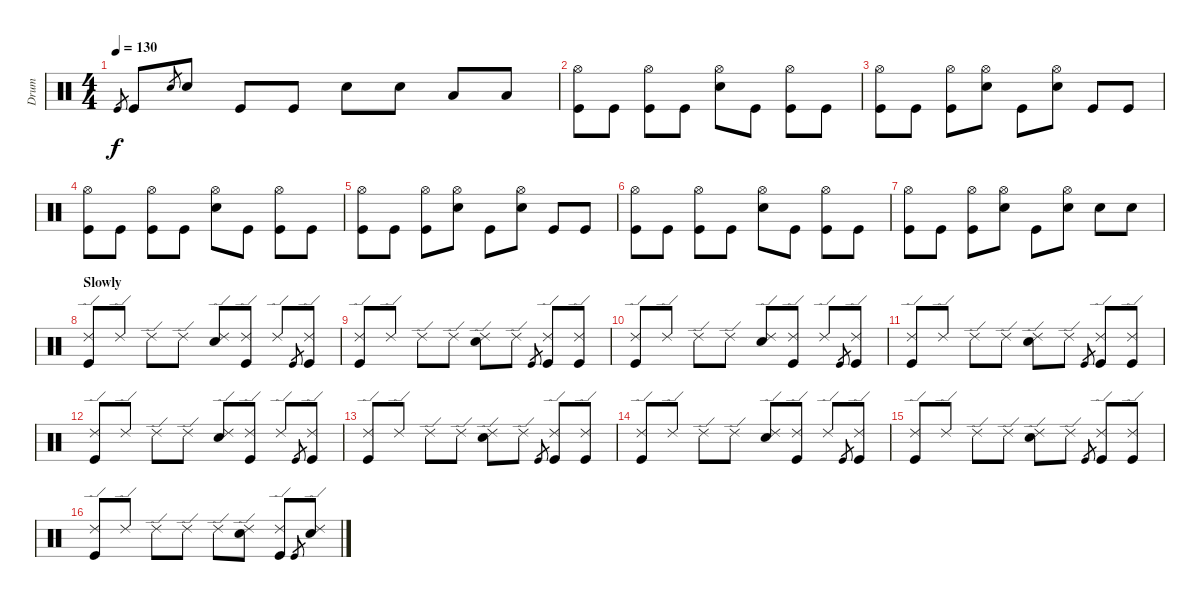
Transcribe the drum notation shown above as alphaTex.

\track ("Drum" "Drum") {instrument percussion}
\staff {score}
\articulation defaults
\ts (4 4)
\tempo 130
\clef neutral
\ks c "Kick (hit)".8{gr dy f} "Kick (hit)".8 "Electric Snare (hit)".8{gr} "Electric Snare (hit)".8 "Kick (hit)".8 "Kick (hit)".8 "Electric Snare (hit)".8 "Electric Snare (hit)".8 "Low Tom (hit)".8 "Low Tom (hit)".8
|
("Hi-Hat (open)" "Kick (hit)").8 "Kick (hit)".8 ("Hi-Hat (open)" "Kick (hit)").8 "Kick (hit)".8 ("Hi-Hat (open)" "Electric Snare (hit)").8 "Kick (hit)".8 ("Hi-Hat (open)" "Kick (hit)").8 "Kick (hit)".8 |
("Hi-Hat (open)" "Kick (hit)").8 "Kick (hit)".8 ("Hi-Hat (open)" "Kick (hit)").8 ("Hi-Hat (open)" "Electric Snare (hit)").8 "Kick (hit)".8 ("Hi-Hat (open)" "Electric Snare (hit)").8 "Kick (hit)".8 "Kick (hit)".8 |
("Hi-Hat (open)" "Kick (hit)").8 "Kick (hit)".8 ("Hi-Hat (open)" "Kick (hit)").8 "Kick (hit)".8 ("Hi-Hat (open)" "Electric Snare (hit)").8 "Kick (hit)".8 ("Hi-Hat (open)" "Kick (hit)").8 "Kick (hit)".8 |
("Hi-Hat (open)" "Kick (hit)").8 "Kick (hit)".8 ("Hi-Hat (open)" "Kick (hit)").8 ("Hi-Hat (open)" "Electric Snare (hit)").8 "Kick (hit)".8 ("Hi-Hat (open)" "Electric Snare (hit)").8 "Kick (hit)".8 "Kick (hit)".8 |
("Hi-Hat (open)" "Kick (hit)").8 "Kick (hit)".8 ("Hi-Hat (open)" "Kick (hit)").8 "Kick (hit)".8 ("Hi-Hat (open)" "Electric Snare (hit)").8 "Kick (hit)".8 ("Hi-Hat (open)" "Kick (hit)").8 "Kick (hit)".8 |
("Hi-Hat (open)" "Kick (hit)").8 "Kick (hit)".8 ("Hi-Hat (open)" "Kick (hit)").8 ("Hi-Hat (open)" "Electric Snare (hit)").8 "Kick (hit)".8 ("Hi-Hat (open)" "Electric Snare (hit)").8 "Electric Snare (hit)".8 "Electric Snare (hit)".8 |
\section ("" "Slowly ")
("Ride (edge) 2" "Kick (hit)").8 "Ride (edge) 2".8 "Ride (edge) 2".8 "Ride (edge) 2".8 ("Ride (edge) 2" "Snare (hit) 2").8 ("Ride (edge) 2" "Kick (hit)").8 "Ride (edge) 2".8 "Kick (hit)".8{gr} ("Ride (edge) 2" "Kick (hit)").8 |
("Ride (edge) 2" "Kick (hit)").8 "Ride (edge) 2".8 "Ride (edge) 2".8 "Ride (edge) 2".8 ("Ride (edge) 2" "Electric Snare (hit)").8 "Ride (edge) 2".8 "Kick (hit)".8{gr} ("Ride (edge) 2" "Kick (hit)").8 ("Ride (edge) 2" "Kick (hit)").8 |
("Ride (edge) 2" "Kick (hit)").8 "Ride (edge) 2".8 "Ride (edge) 2".8 "Ride (edge) 2".8 ("Ride (edge) 2" "Snare (hit) 2").8 ("Ride (edge) 2" "Kick (hit)").8 "Ride (edge) 2".8 "Kick (hit)".8{gr} ("Ride (edge) 2" "Kick (hit)").8 |
("Ride (edge) 2" "Kick (hit)").8 "Ride (edge) 2".8 "Ride (edge) 2".8 "Ride (edge) 2".8 ("Ride (edge) 2" "Electric Snare (hit)").8 "Ride (edge) 2".8 "Kick (hit)".8{gr} ("Ride (edge) 2" "Kick (hit)").8 ("Ride (edge) 2" "Kick (hit)").8 |
("Ride (edge) 2" "Kick (hit)").8 "Ride (edge) 2".8 "Ride (edge) 2".8 "Ride (edge) 2".8 ("Ride (edge) 2" "Snare (hit) 2").8 ("Ride (edge) 2" "Kick (hit)").8 "Ride (edge) 2".8 "Kick (hit)".8{gr} ("Ride (edge) 2" "Kick (hit)").8 |
("Ride (edge) 2" "Kick (hit)").8 "Ride (edge) 2".8 "Ride (edge) 2".8 "Ride (edge) 2".8 ("Ride (edge) 2" "Electric Snare (hit)").8 "Ride (edge) 2".8 "Kick (hit)".8{gr} ("Ride (edge) 2" "Kick (hit)").8 ("Ride (edge) 2" "Kick (hit)").8 |
("Ride (edge) 2" "Kick (hit)").8 "Ride (edge) 2".8 "Ride (edge) 2".8 "Ride (edge) 2".8 ("Ride (edge) 2" "Snare (hit) 2").8 ("Ride (edge) 2" "Kick (hit)").8 "Ride (edge) 2".8 "Kick (hit)".8{gr} ("Ride (edge) 2" "Kick (hit)").8 |
("Ride (edge) 2" "Kick (hit)").8 "Ride (edge) 2".8 "Ride (edge) 2".8 "Ride (edge) 2".8 ("Ride (edge) 2" "Electric Snare (hit)").8 "Ride (edge) 2".8 "Kick (hit)".8{gr} ("Ride (edge) 2" "Kick (hit)").8 ("Ride (edge) 2" "Kick (hit)").8 |
("Ride (edge) 2" "Kick (hit)").8 "Ride (edge) 2".8 "Ride (edge) 2".8 "Ride (edge) 2".8 "Ride (edge) 2".8 ("Ride (edge) 2" "Electric Snare (hit)").8 ("Ride (edge) 2" "Kick (hit)").8 "Kick (hit)".8{gr} ("Ride (edge) 2" "Electric Snare (hit)").8
